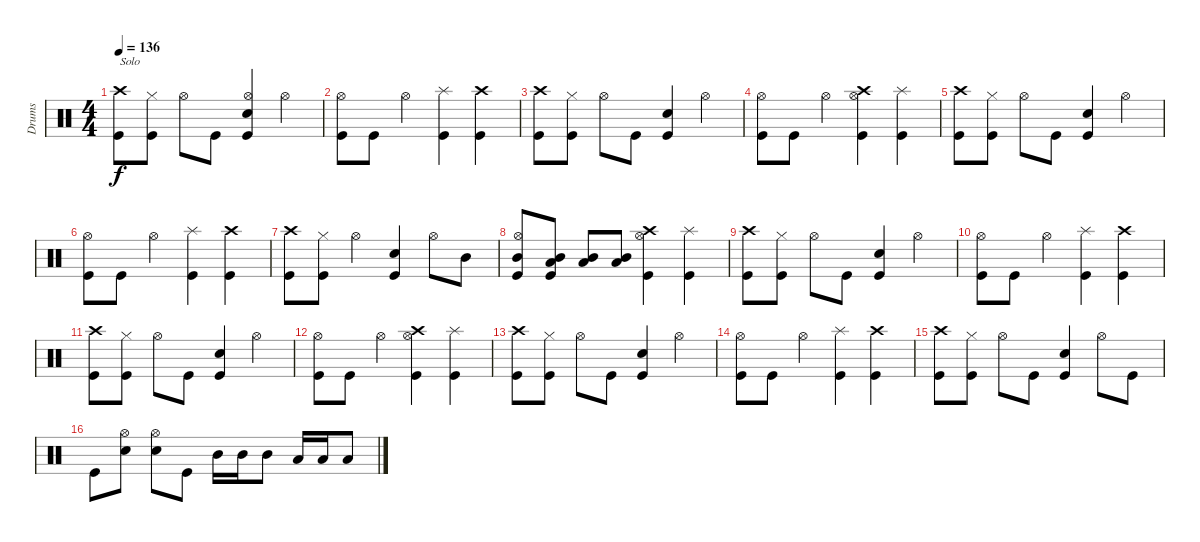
\track ("Drums" "Drums") {instrument percussion}
\staff {score}
\articulation defaults
\ts (4 4)
\tempo 136
\clef neutral
\ks c
("Crash high (hit)" "Kick (hit)").8{txt "Solo" dy f} ("Hi-Hat (closed)" "Kick (hit)").8 "Hi-Hat (open)".8 "Kick (hit)".8 ("Hi-Hat (open)" "Snare (hit) 2" "Kick (hit)").4 "Hi-Hat (open)".4 |
("Hi-Hat (open)" "Kick (hit)").8 "Kick (hit)".8 "Hi-Hat (open)".4 ("Splash (hit)" "Kick (hit)").4 ("Crash high (hit)" "Kick (hit)").4 |
("Crash high (hit)" "Kick (hit)").8 ("Hi-Hat (closed)" "Kick (hit)").8 "Hi-Hat (open)".8 "Kick (hit)".8 ("Snare (hit) 2" "Kick (hit)").4 "Hi-Hat (open)".4 |
("Hi-Hat (open)" "Kick (hit)").8 "Kick (hit)".8 "Hi-Hat (open)".4 ("Crash high (hit)" "Hi-Hat (open)" "Kick (hit)").4 ("Splash (hit)" "Kick (hit)").4 |
("Crash high (hit)" "Kick (hit)").8 ("Hi-Hat (closed)" "Kick (hit)").8 "Hi-Hat (open)".8 "Kick (hit)".8 ("Snare (hit) 2" "Kick (hit)").4 "Hi-Hat (open)".4 |
("Hi-Hat (open)" "Kick (hit)").8 "Kick (hit)".8 "Hi-Hat (open)".4 ("Splash (hit)" "Kick (hit)").4 ("Crash high (hit)" "Kick (hit)").4 |
("Crash high (hit)" "Kick (hit)").8 ("Hi-Hat (closed)" "Kick (hit)").8 "Hi-Hat (open)".4 ("Snare (hit) 2" "Kick (hit)").4 "Hi-Hat (open)".8 "Mid Tom (hit)".8 |
("Mid Tom (hit)" "Hi-Hat (open)" "Kick (hit)").8 ("Mid Tom (hit)" "Low Tom (hit)" "Kick (hit)").8 ("Mid Tom (hit)" "Low Tom (hit)").8 ("Mid Tom (hit)" "Low Tom (hit)").8 ("Crash high (hit)" "Hi-Hat (open)" "Kick (hit)").4 ("Splash (hit)" "Kick (hit)").4 |
("Crash high (hit)" "Kick (hit)").8 ("Hi-Hat (closed)" "Kick (hit)").8 "Hi-Hat (open)".8 "Kick (hit)".8 ("Snare (hit) 2" "Kick (hit)").4 "Hi-Hat (open)".4 |
("Hi-Hat (open)" "Kick (hit)").8 "Kick (hit)".8 "Hi-Hat (open)".4 ("Splash (hit)" "Kick (hit)").4 ("Crash high (hit)" "Kick (hit)").4 |
("Crash high (hit)" "Kick (hit)").8 ("Hi-Hat (closed)" "Kick (hit)").8 "Hi-Hat (open)".8 "Kick (hit)".8 ("Snare (hit) 2" "Kick (hit)").4 "Hi-Hat (open)".4 |
("Hi-Hat (open)" "Kick (hit)").8 "Kick (hit)".8 "Hi-Hat (open)".4 ("Crash high (hit)" "Hi-Hat (open)" "Kick (hit)").4 ("Splash (hit)" "Kick (hit)").4 |
("Crash high (hit)" "Kick (hit)").8 ("Hi-Hat (closed)" "Kick (hit)").8 "Hi-Hat (open)".8 "Kick (hit)".8 ("Snare (hit) 2" "Kick (hit)").4 "Hi-Hat (open)".4 |
("Hi-Hat (open)" "Kick (hit)").8 "Kick (hit)".8 "Hi-Hat (open)".4 ("Splash (hit)" "Kick (hit)").4 ("Crash high (hit)" "Kick (hit)").4 |
("Crash high (hit)" "Kick (hit)").8 ("Hi-Hat (closed)" "Kick (hit)").8 "Hi-Hat (open)".8 "Kick (hit)".8 ("Snare (hit) 2" "Kick (hit)").4 "Hi-Hat (open)".8 "Kick (hit)".8 |
"Kick (hit)".8 ("Hi-Hat (open)" "Snare (hit) 2").8 ("Hi-Hat (open)" "Snare (hit) 2").8 "Kick (hit)".8 "Mid Tom (hit)".16 "Mid Tom (hit)".16 "Mid Tom (hit)".8 "Low Tom (hit)".16 "Low Tom (hit)".16 "Low Tom (hit)".8
